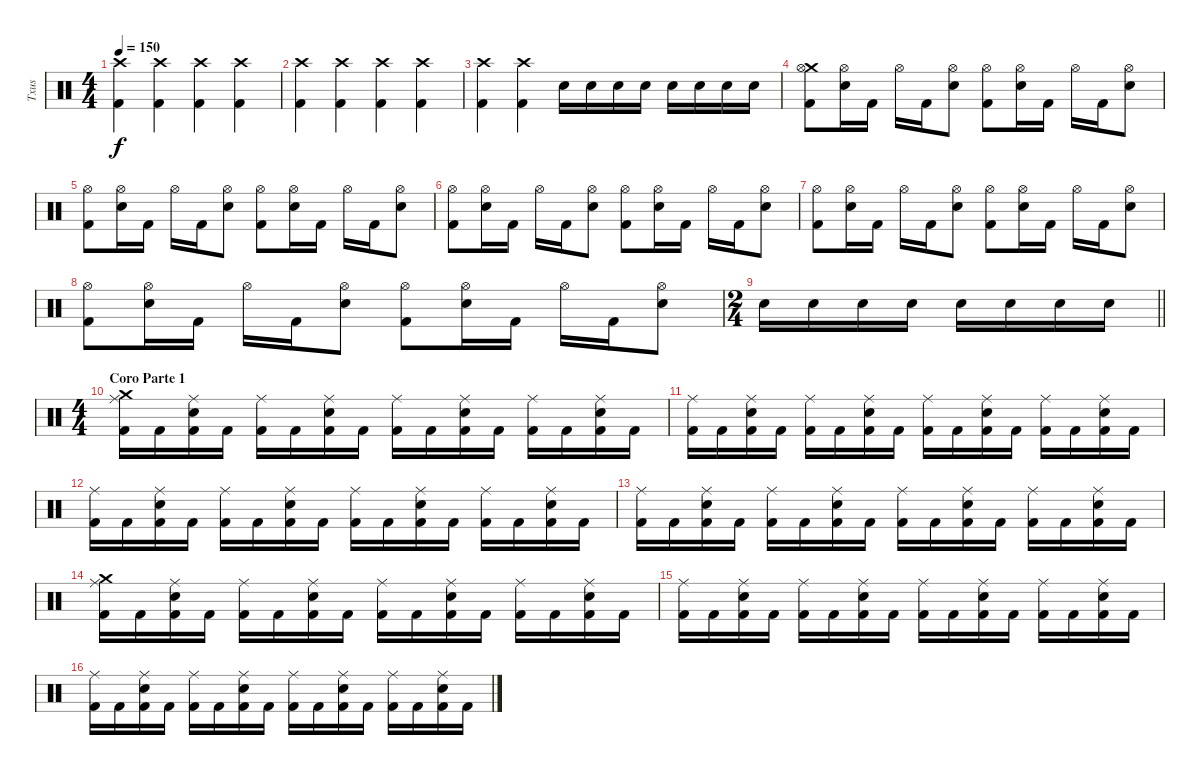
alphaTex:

\track ("Txus" "Txus") {instrument percussion}
\staff {score}
\articulation defaults
\ts (4 4)
\tempo 150
\clef neutral
\ks c
("Crash high (hit)" "Kick (hit) 2").4{dy f} ("Crash high (hit)" "Kick (hit) 2").4 ("Crash high (hit)" "Kick (hit) 2").4 ("Crash high (hit)" "Kick (hit) 2").4 |
("Crash high (hit)" "Kick (hit) 2").4 ("Crash high (hit)" "Kick (hit) 2").4 ("Crash high (hit)" "Kick (hit) 2").4 ("Crash high (hit)" "Kick (hit) 2").4 |
("Crash high (hit)" "Kick (hit) 2").4 ("Crash high (hit)" "Kick (hit) 2").4 "Electric Snare (hit)".16 "Electric Snare (hit)".16 "Electric Snare (hit)".16 "Electric Snare (hit)".16 "Electric Snare (hit)".16 "Electric Snare (hit)".16 "Electric Snare (hit)".16 "Electric Snare (hit)".16 |
("Crash medium (hit)" "Hi-Hat (open)" "Kick (hit) 2").8 ("Hi-Hat (open)" "Electric Snare (hit)").16 "Kick (hit) 2".16 "Hi-Hat (open)".16 "Kick (hit) 2".16 ("Hi-Hat (open)" "Electric Snare (hit)").8 ("Hi-Hat (open)" "Kick (hit) 2").8 ("Hi-Hat (open)" "Electric Snare (hit)").16 "Kick (hit) 2".16 "Hi-Hat (open)".16 "Kick (hit) 2".16 ("Hi-Hat (open)" "Electric Snare (hit)").8 |
("Hi-Hat (open)" "Kick (hit) 2").8 ("Hi-Hat (open)" "Electric Snare (hit)").16 "Kick (hit) 2".16 "Hi-Hat (open)".16 "Kick (hit) 2".16 ("Hi-Hat (open)" "Electric Snare (hit)").8 ("Hi-Hat (open)" "Kick (hit) 2").8 ("Hi-Hat (open)" "Electric Snare (hit)").16 "Kick (hit) 2".16 "Hi-Hat (open)".16 "Kick (hit) 2".16 ("Hi-Hat (open)" "Electric Snare (hit)").8 |
("Hi-Hat (open)" "Kick (hit) 2").8 ("Hi-Hat (open)" "Electric Snare (hit)").16 "Kick (hit) 2".16 "Hi-Hat (open)".16 "Kick (hit) 2".16 ("Hi-Hat (open)" "Electric Snare (hit)").8 ("Hi-Hat (open)" "Kick (hit) 2").8 ("Hi-Hat (open)" "Electric Snare (hit)").16 "Kick (hit) 2".16 "Hi-Hat (open)".16 "Kick (hit) 2".16 ("Hi-Hat (open)" "Electric Snare (hit)").8 |
("Hi-Hat (open)" "Kick (hit) 2").8 ("Hi-Hat (open)" "Electric Snare (hit)").16 "Kick (hit) 2".16 "Hi-Hat (open)".16 "Kick (hit) 2".16 ("Hi-Hat (open)" "Electric Snare (hit)").8 ("Hi-Hat (open)" "Kick (hit) 2").8 ("Hi-Hat (open)" "Electric Snare (hit)").16 "Kick (hit) 2".16 "Hi-Hat (open)".16 "Kick (hit) 2".16 ("Hi-Hat (open)" "Electric Snare (hit)").8 |
("Hi-Hat (open)" "Kick (hit) 2").8 ("Hi-Hat (open)" "Electric Snare (hit)").16 "Kick (hit) 2".16 "Hi-Hat (open)".16 "Kick (hit) 2".16 ("Hi-Hat (open)" "Electric Snare (hit)").8 ("Hi-Hat (open)" "Kick (hit) 2").8 ("Hi-Hat (open)" "Electric Snare (hit)").16 "Kick (hit) 2".16 "Hi-Hat (open)".16 "Kick (hit) 2".16 ("Hi-Hat (open)" "Electric Snare (hit)").8 |
\ts (2 4)
\barLineRight lightlight "Electric Snare (hit)".16 "Electric Snare (hit)".16 "Electric Snare (hit)".16 "Electric Snare (hit)".16 "Electric Snare (hit)".16 "Electric Snare (hit)".16 "Electric Snare (hit)".16 "Electric Snare (hit)".16
|
\ts (4 4)
\section ("" "Coro Parte 1")
("Crash medium (hit)" "Ride (middle)" "Kick (hit) 2").16 "Kick (hit) 2".16 ("Ride (middle)" "Electric Snare (hit)" "Kick (hit) 2").16 "Kick (hit) 2".16 ("Ride (middle)" "Kick (hit) 2").16 "Kick (hit) 2".16 ("Ride (middle)" "Electric Snare (hit)" "Kick (hit) 2").16 "Kick (hit) 2".16 ("Ride (middle)" "Kick (hit) 2").16 "Kick (hit) 2".16 ("Ride (middle)" "Electric Snare (hit)" "Kick (hit) 2").16 "Kick (hit) 2".16 ("Ride (middle)" "Kick (hit) 2").16 "Kick (hit) 2".16 ("Ride (middle)" "Electric Snare (hit)" "Kick (hit) 2").16 "Kick (hit) 2".16 |
("Ride (middle)" "Kick (hit) 2").16 "Kick (hit) 2".16 ("Ride (middle)" "Electric Snare (hit)" "Kick (hit) 2").16 "Kick (hit) 2".16 ("Ride (middle)" "Kick (hit) 2").16 "Kick (hit) 2".16 ("Ride (middle)" "Electric Snare (hit)" "Kick (hit) 2").16 "Kick (hit) 2".16 ("Ride (middle)" "Kick (hit) 2").16 "Kick (hit) 2".16 ("Ride (middle)" "Electric Snare (hit)" "Kick (hit) 2").16 "Kick (hit) 2".16 ("Ride (middle)" "Kick (hit) 2").16 "Kick (hit) 2".16 ("Ride (middle)" "Electric Snare (hit)" "Kick (hit) 2").16 "Kick (hit) 2".16 |
("Ride (middle)" "Kick (hit) 2").16 "Kick (hit) 2".16 ("Ride (middle)" "Electric Snare (hit)" "Kick (hit) 2").16 "Kick (hit) 2".16 ("Ride (middle)" "Kick (hit) 2").16 "Kick (hit) 2".16 ("Ride (middle)" "Electric Snare (hit)" "Kick (hit) 2").16 "Kick (hit) 2".16 ("Ride (middle)" "Kick (hit) 2").16 "Kick (hit) 2".16 ("Ride (middle)" "Electric Snare (hit)" "Kick (hit) 2").16 "Kick (hit) 2".16 ("Ride (middle)" "Kick (hit) 2").16 "Kick (hit) 2".16 ("Ride (middle)" "Electric Snare (hit)" "Kick (hit) 2").16 "Kick (hit) 2".16 |
("Ride (middle)" "Kick (hit) 2").16 "Kick (hit) 2".16 ("Ride (middle)" "Electric Snare (hit)" "Kick (hit) 2").16 "Kick (hit) 2".16 ("Ride (middle)" "Kick (hit) 2").16 "Kick (hit) 2".16 ("Ride (middle)" "Electric Snare (hit)" "Kick (hit) 2").16 "Kick (hit) 2".16 ("Ride (middle)" "Kick (hit) 2").16 "Kick (hit) 2".16 ("Ride (middle)" "Electric Snare (hit)" "Kick (hit) 2").16 "Kick (hit) 2".16 ("Ride (middle)" "Kick (hit) 2").16 "Kick (hit) 2".16 ("Ride (middle)" "Electric Snare (hit)" "Kick (hit) 2").16 "Kick (hit) 2".16 |
("Crash medium (hit)" "Ride (middle)" "Kick (hit) 2").16 "Kick (hit) 2".16 ("Ride (middle)" "Electric Snare (hit)" "Kick (hit) 2").16 "Kick (hit) 2".16 ("Ride (middle)" "Kick (hit) 2").16 "Kick (hit) 2".16 ("Ride (middle)" "Electric Snare (hit)" "Kick (hit) 2").16 "Kick (hit) 2".16 ("Ride (middle)" "Kick (hit) 2").16 "Kick (hit) 2".16 ("Ride (middle)" "Electric Snare (hit)" "Kick (hit) 2").16 "Kick (hit) 2".16 ("Ride (middle)" "Kick (hit) 2").16 "Kick (hit) 2".16 ("Ride (middle)" "Electric Snare (hit)" "Kick (hit) 2").16 "Kick (hit) 2".16 |
("Ride (middle)" "Kick (hit) 2").16 "Kick (hit) 2".16 ("Ride (middle)" "Electric Snare (hit)" "Kick (hit) 2").16 "Kick (hit) 2".16 ("Ride (middle)" "Kick (hit) 2").16 "Kick (hit) 2".16 ("Ride (middle)" "Electric Snare (hit)" "Kick (hit) 2").16 "Kick (hit) 2".16 ("Ride (middle)" "Kick (hit) 2").16 "Kick (hit) 2".16 ("Ride (middle)" "Electric Snare (hit)" "Kick (hit) 2").16 "Kick (hit) 2".16 ("Ride (middle)" "Kick (hit) 2").16 "Kick (hit) 2".16 ("Ride (middle)" "Electric Snare (hit)" "Kick (hit) 2").16 "Kick (hit) 2".16 |
("Ride (middle)" "Kick (hit) 2").16 "Kick (hit) 2".16 ("Ride (middle)" "Electric Snare (hit)" "Kick (hit) 2").16 "Kick (hit) 2".16 ("Ride (middle)" "Kick (hit) 2").16 "Kick (hit) 2".16 ("Ride (middle)" "Electric Snare (hit)" "Kick (hit) 2").16 "Kick (hit) 2".16 ("Ride (middle)" "Kick (hit) 2").16 "Kick (hit) 2".16 ("Ride (middle)" "Electric Snare (hit)" "Kick (hit) 2").16 "Kick (hit) 2".16 ("Ride (middle)" "Kick (hit) 2").16 "Kick (hit) 2".16 ("Ride (middle)" "Electric Snare (hit)" "Kick (hit) 2").16 "Kick (hit) 2".16
